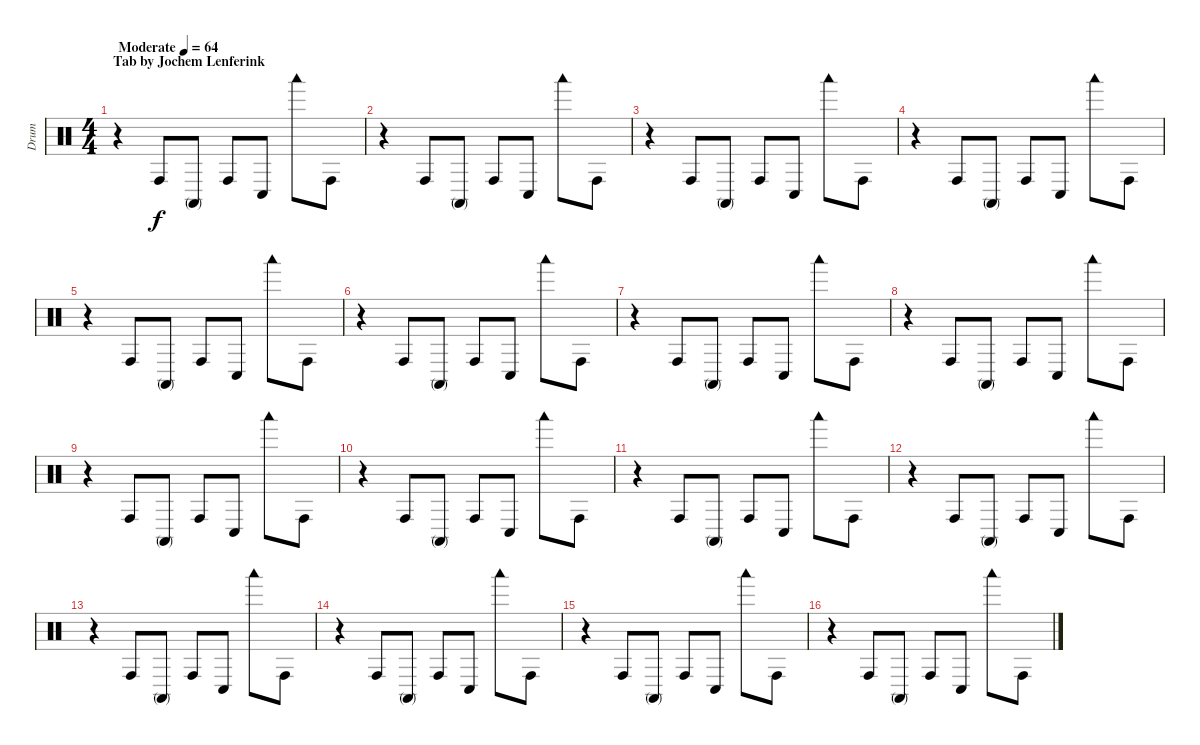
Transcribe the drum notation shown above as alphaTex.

\track ("Drum" "Drum") {instrument percussion}
\staff {score}
\articulation defaults
\ts (4 4)
\section ("" "Tab by Jochem Lenferink")
\tempo (64 "Moderate")
\clef neutral
\ks c
r.4{dy f} "Conga high (hit)".8 "Conga high (mute)".8 "Conga high (hit)".8 "Conga low (hit)".8 "Woodblock low (hit)".8 "Conga high (hit)".8 |
r.4 "Conga high (hit)".8 "Conga high (mute)".8 "Conga high (hit)".8 "Conga low (hit)".8 "Woodblock low (hit)".8 "Conga high (hit)".8 |
r.4 "Conga high (hit)".8 "Conga high (mute)".8 "Conga high (hit)".8 "Conga low (hit)".8 "Woodblock low (hit)".8 "Conga high (hit)".8 |
r.4 "Conga high (hit)".8 "Conga high (mute)".8 "Conga high (hit)".8 "Conga low (hit)".8 "Woodblock low (hit)".8 "Conga high (hit)".8 |
r.4 "Conga high (hit)".8 "Conga high (mute)".8 "Conga high (hit)".8 "Conga low (hit)".8 "Woodblock low (hit)".8 "Conga high (hit)".8 |
r.4 "Conga high (hit)".8 "Conga high (mute)".8 "Conga high (hit)".8 "Conga low (hit)".8 "Woodblock low (hit)".8 "Conga high (hit)".8 |
r.4 "Conga high (hit)".8 "Conga high (mute)".8 "Conga high (hit)".8 "Conga low (hit)".8 "Woodblock low (hit)".8 "Conga high (hit)".8 |
r.4 "Conga high (hit)".8 "Conga high (mute)".8 "Conga high (hit)".8 "Conga low (hit)".8 "Woodblock low (hit)".8 "Conga high (hit)".8 |
r.4 "Conga high (hit)".8 "Conga high (mute)".8 "Conga high (hit)".8 "Conga low (hit)".8 "Woodblock low (hit)".8 "Conga high (hit)".8 |
r.4 "Conga high (hit)".8 "Conga high (mute)".8 "Conga high (hit)".8 "Conga low (hit)".8 "Woodblock low (hit)".8 "Conga high (hit)".8 |
r.4 "Conga high (hit)".8 "Conga high (mute)".8 "Conga high (hit)".8 "Conga low (hit)".8 "Woodblock low (hit)".8 "Conga high (hit)".8 |
r.4 "Conga high (hit)".8 "Conga high (mute)".8 "Conga high (hit)".8 "Conga low (hit)".8 "Woodblock low (hit)".8 "Conga high (hit)".8 |
r.4 "Conga high (hit)".8 "Conga high (mute)".8 "Conga high (hit)".8 "Conga low (hit)".8 "Woodblock low (hit)".8 "Conga high (hit)".8 |
r.4 "Conga high (hit)".8 "Conga high (mute)".8 "Conga high (hit)".8 "Conga low (hit)".8 "Woodblock low (hit)".8 "Conga high (hit)".8 |
r.4 "Conga high (hit)".8 "Conga high (mute)".8 "Conga high (hit)".8 "Conga low (hit)".8 "Woodblock low (hit)".8 "Conga high (hit)".8 |
r.4 "Conga high (hit)".8 "Conga high (mute)".8 "Conga high (hit)".8 "Conga low (hit)".8 "Woodblock low (hit)".8 "Conga high (hit)".8
